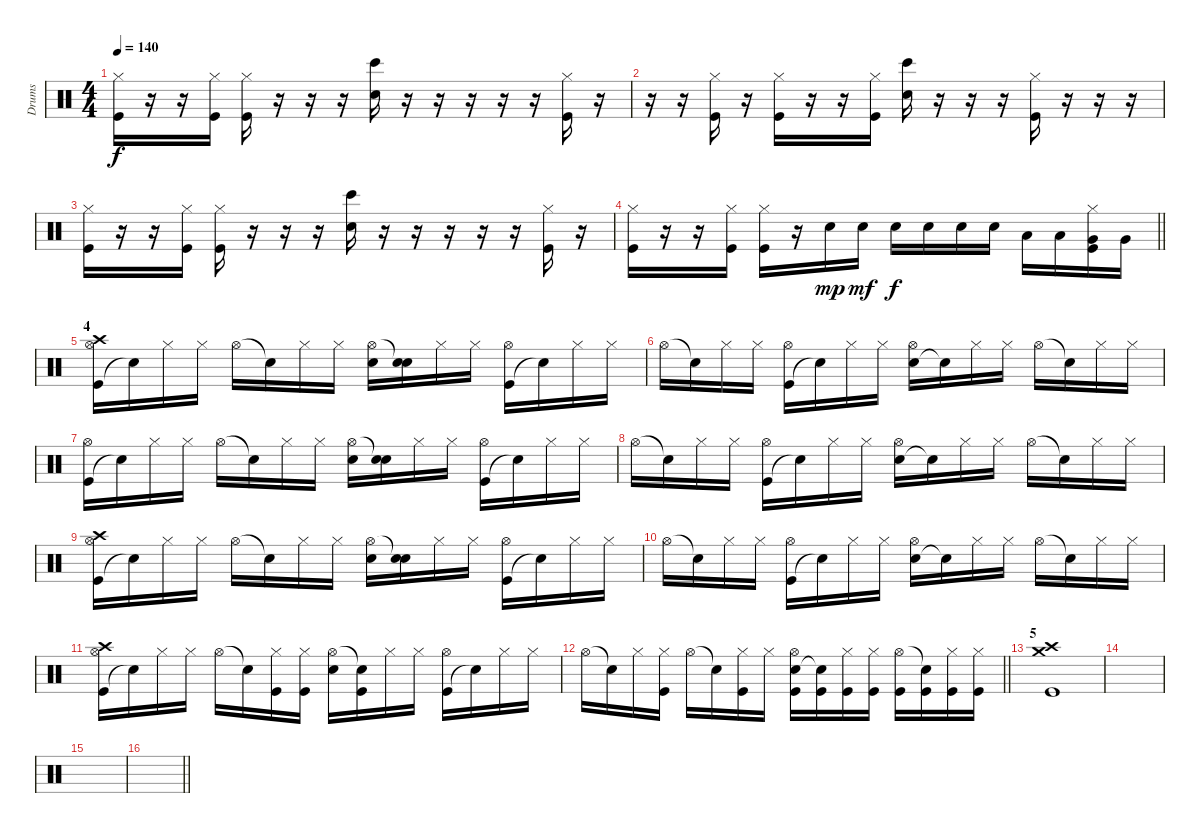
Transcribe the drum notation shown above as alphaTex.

\track ("Drums" "Drums") {instrument percussion}
\staff {score}
\articulation defaults
\ts (4 4)
\tempo 140
\clef neutral
\ks c
("Hi-Hat (closed)" "Kick (hit)").16{dy f} r.16 r.16 ("Hi-Hat (closed)" "Kick (hit)").16 ("Hi-Hat (closed)" "Kick (hit)").16 r.16 r.16 r.16 ("Bongo High (hit)" "Snare (hit) 2").16 r.16 r.16 r.16 r.16 r.16 ("Hi-Hat (closed)" "Kick (hit)").16 r.16 |
r.16 r.16 ("Hi-Hat (closed)" "Kick (hit)").16 r.16 ("Hi-Hat (closed)" "Kick (hit)").16 r.16 r.16 ("Hi-Hat (closed)" "Kick (hit)").16 ("Bongo High (hit)" "Snare (hit) 2").16 r.16 r.16 r.16 ("Hi-Hat (closed)" "Kick (hit)").16 r.16 r.16 r.16 |
("Hi-Hat (closed)" "Kick (hit)").16 r.16 r.16 ("Hi-Hat (closed)" "Kick (hit)").16 ("Hi-Hat (closed)" "Kick (hit)").16 r.16 r.16 r.16 ("Bongo High (hit)" "Snare (hit) 2").16 r.16 r.16 r.16 r.16 r.16 ("Hi-Hat (closed)" "Kick (hit)").16 r.16 |
\barLineRight lightlight
("Hi-Hat (closed)" "Kick (hit)").16 r.16 r.16 ("Hi-Hat (closed)" "Kick (hit)").16 ("Hi-Hat (closed)" "Kick (hit)").16 r.16 "Snare (hit) 2".16{dy mp} "Snare (hit) 2".16{dy mf} "Snare (hit) 2".16{dy f} "Snare (hit) 2".16 "Snare (hit) 2".16 "Snare (hit) 2".16 "Low Tom (hit)".16 "Low Tom (hit)".16 ("Hi-Hat (closed)" "Kick (hit)" "Very Low Tom (hit)").16 "Very Low Tom (hit)".16 |
\section ("" "4")
("Kick (hit)" "Hi-Hat (open)" "Crash high (hit)").16 "Snare (hit)"{t}.16 "Hi-Hat (closed)".16 "Hi-Hat (closed)".16 "Hi-Hat (open)".16 "Snare (hit)"{t}.16 "Hi-Hat (closed)".16 "Hi-Hat (closed)".16 ("Snare (hit) 2" "Hi-Hat (open)").16 ("Snare (hit) 2" "Snare (hit)"{t}).16 "Hi-Hat (closed)".16 "Hi-Hat (closed)".16 ("Kick (hit)" "Hi-Hat (open)").16 "Snare (hit)"{t}.16 "Hi-Hat (closed)".16 "Hi-Hat (closed)".16 |
"Hi-Hat (open)".16 "Snare (hit)"{t}.16 "Hi-Hat (closed)".16 "Hi-Hat (closed)".16 ("Kick (hit)" "Hi-Hat (open)").16 "Snare (hit)"{t}.16 "Hi-Hat (closed)".16 "Hi-Hat (closed)".16 ("Snare (hit) 2" "Hi-Hat (open)").16 "Snare (hit)"{t}.16 "Hi-Hat (closed)".16 "Hi-Hat (closed)".16 "Hi-Hat (open)".16 "Snare (hit)"{t}.16 "Hi-Hat (closed)".16 "Hi-Hat (closed)".16 |
("Kick (hit)" "Hi-Hat (open)").16 "Snare (hit)"{t}.16 "Hi-Hat (closed)".16 "Hi-Hat (closed)".16 "Hi-Hat (open)".16 "Snare (hit)"{t}.16 "Hi-Hat (closed)".16 "Hi-Hat (closed)".16 ("Snare (hit) 2" "Hi-Hat (open)").16 ("Snare (hit) 2" "Snare (hit)"{t}).16 "Hi-Hat (closed)".16 "Hi-Hat (closed)".16 ("Kick (hit)" "Hi-Hat (open)").16 "Snare (hit)"{t}.16 "Hi-Hat (closed)".16 "Hi-Hat (closed)".16 |
"Hi-Hat (open)".16 "Snare (hit)"{t}.16 "Hi-Hat (closed)".16 "Hi-Hat (closed)".16 ("Kick (hit)" "Hi-Hat (open)").16 "Snare (hit)"{t}.16 "Hi-Hat (closed)".16 "Hi-Hat (closed)".16 ("Snare (hit) 2" "Hi-Hat (open)").16 "Snare (hit)"{t}.16 "Hi-Hat (closed)".16 "Hi-Hat (closed)".16 "Hi-Hat (open)".16 "Snare (hit)"{t}.16 "Hi-Hat (closed)".16 "Hi-Hat (closed)".16 |
("Kick (hit)" "Hi-Hat (open)" "Crash high (hit)").16 "Snare (hit)"{t}.16 "Hi-Hat (closed)".16 "Hi-Hat (closed)".16 "Hi-Hat (open)".16 "Snare (hit)"{t}.16 "Hi-Hat (closed)".16 "Hi-Hat (closed)".16 ("Snare (hit) 2" "Hi-Hat (open)").16 ("Snare (hit) 2" "Snare (hit)"{t}).16 "Hi-Hat (closed)".16 "Hi-Hat (closed)".16 ("Kick (hit)" "Hi-Hat (open)").16 "Snare (hit)"{t}.16 "Hi-Hat (closed)".16 "Hi-Hat (closed)".16 |
"Hi-Hat (open)".16 "Snare (hit)"{t}.16 "Hi-Hat (closed)".16 "Hi-Hat (closed)".16 ("Kick (hit)" "Hi-Hat (open)").16 "Snare (hit)"{t}.16 "Hi-Hat (closed)".16 "Hi-Hat (closed)".16 ("Snare (hit) 2" "Hi-Hat (open)").16 "Snare (hit)"{t}.16 "Hi-Hat (closed)".16 "Hi-Hat (closed)".16 "Hi-Hat (open)".16 "Snare (hit)"{t}.16 "Hi-Hat (closed)".16 "Hi-Hat (closed)".16 |
("Kick (hit)" "Hi-Hat (open)" "Crash high (hit)").16 "Snare (hit)"{t}.16 "Hi-Hat (closed)".16 "Hi-Hat (closed)".16 "Hi-Hat (open)".16 "Snare (hit)"{t}.16 ("Kick (hit)" "Hi-Hat (closed)").16 ("Kick (hit)" "Hi-Hat (closed)").16 ("Snare (hit) 2" "Hi-Hat (open)").16 ("Kick (hit)" "Snare (hit)"{t}).16 "Hi-Hat (closed)".16 "Hi-Hat (closed)".16 ("Kick (hit)" "Hi-Hat (open)").16 "Snare (hit)"{t}.16 "Hi-Hat (closed)".16 "Hi-Hat (closed)".16 |
\barLineRight lightlight "Hi-Hat (open)".16 "Snare (hit)"{t}.16 "Hi-Hat (closed)".16
("Kick (hit)" "Hi-Hat (closed)").16 "Hi-Hat (open)".16 "Snare (hit)"{t}.16 ("Kick (hit)" "Hi-Hat (closed)").16 "Hi-Hat (closed)".16 ("Kick (hit)" "Snare (hit) 2" "Hi-Hat (open)").16 ("Kick (hit)" "Snare (hit)"{t}).16 ("Kick (hit)" "Hi-Hat (closed)").16 ("Kick (hit)" "Hi-Hat (closed)").16 ("Kick (hit)" "Hi-Hat (open)").16 ("Kick (hit)" "Snare (hit)"{t}).16 ("Kick (hit)" "Hi-Hat (closed)").16 ("Kick (hit)" "Hi-Hat (closed)").16 |
\section ("" "5")
("Kick (hit)" "Crash high (hit)" "Crash medium (hit)").1 |
|
|
\barLineRight lightlight
